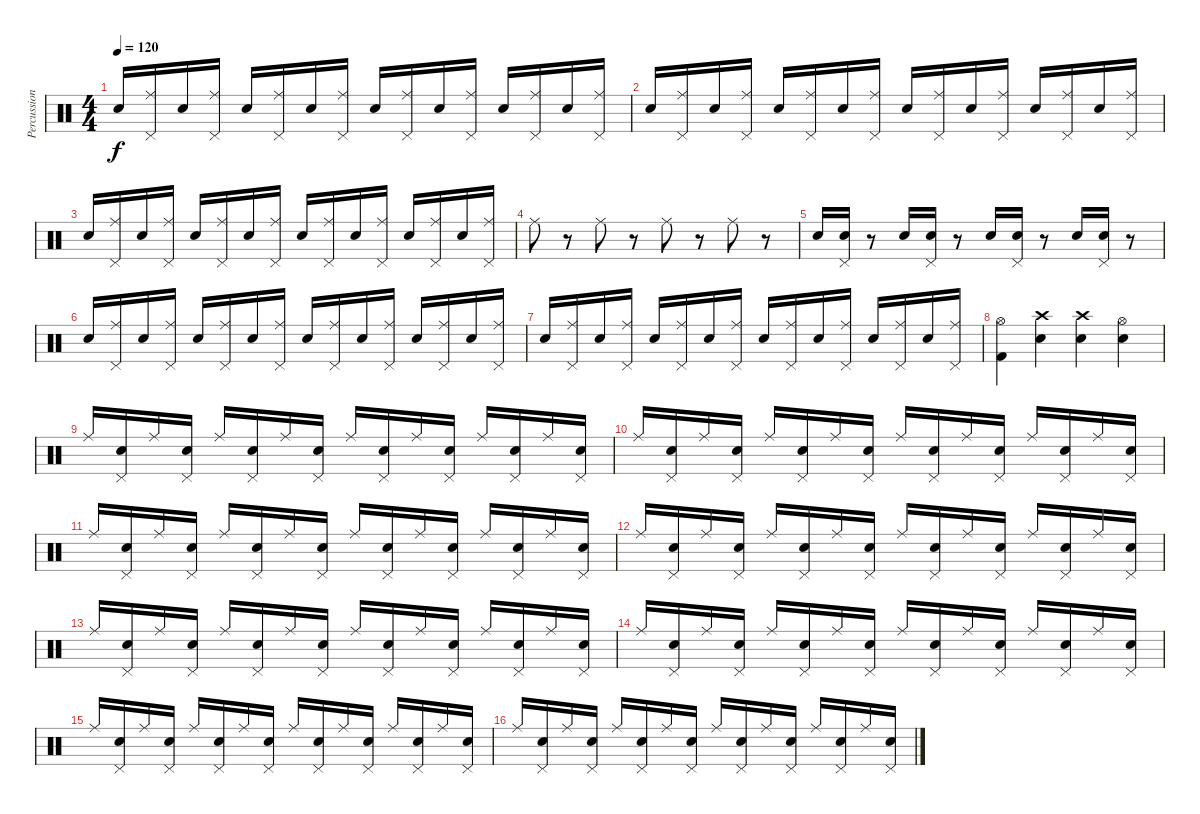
\track ("Percussions" "Percussion") {instrument percussion}
\staff {score}
\articulation defaults
\ts (4 4)
\tempo 120
\clef neutral
\ks c "Electric Snare (hit)".16{dy f}
("Pedal Hi-Hat (hit)" "Ride (middle)").16 "Electric Snare (hit)".16 ("Pedal Hi-Hat (hit)" "Ride (middle)").16 "Electric Snare (hit)".16 ("Pedal Hi-Hat (hit)" "Ride (middle)").16 "Electric Snare (hit)".16 ("Pedal Hi-Hat (hit)" "Ride (middle)").16 "Electric Snare (hit)".16 ("Pedal Hi-Hat (hit)" "Ride (middle)").16 "Electric Snare (hit)".16 ("Pedal Hi-Hat (hit)" "Ride (middle)").16 "Electric Snare (hit)".16 ("Pedal Hi-Hat (hit)" "Ride (middle)").16 "Electric Snare (hit)".16 ("Pedal Hi-Hat (hit)" "Ride (middle)").16 |
"Electric Snare (hit)".16 ("Pedal Hi-Hat (hit)" "Ride (middle)").16 "Electric Snare (hit)".16 ("Pedal Hi-Hat (hit)" "Ride (middle)").16 "Electric Snare (hit)".16 ("Pedal Hi-Hat (hit)" "Ride (middle)").16 "Electric Snare (hit)".16 ("Pedal Hi-Hat (hit)" "Ride (middle)").16 "Electric Snare (hit)".16 ("Pedal Hi-Hat (hit)" "Ride (middle)").16 "Electric Snare (hit)".16 ("Pedal Hi-Hat (hit)" "Ride (middle)").16 "Electric Snare (hit)".16 ("Pedal Hi-Hat (hit)" "Ride (middle)").16 "Electric Snare (hit)".16 ("Pedal Hi-Hat (hit)" "Ride (middle)").16 |
"Electric Snare (hit)".16 ("Pedal Hi-Hat (hit)" "Ride (middle)").16 "Electric Snare (hit)".16 ("Pedal Hi-Hat (hit)" "Ride (middle)").16 "Electric Snare (hit)".16 ("Pedal Hi-Hat (hit)" "Ride (middle)").16 "Electric Snare (hit)".16 ("Pedal Hi-Hat (hit)" "Ride (middle)").16 "Electric Snare (hit)".16 ("Pedal Hi-Hat (hit)" "Ride (middle)").16 "Electric Snare (hit)".16 ("Pedal Hi-Hat (hit)" "Ride (middle)").16 "Electric Snare (hit)".16 ("Pedal Hi-Hat (hit)" "Ride (middle)").16 "Electric Snare (hit)".16 ("Pedal Hi-Hat (hit)" "Ride (middle)").16 |
"Ride (middle)".8 r.8 "Ride (middle)".8 r.8 "Ride (middle)".8 r.8 "Ride (middle)".8 r.8 |
"Electric Snare (hit)".16 ("Pedal Hi-Hat (hit)" "Electric Snare (hit)").16 r.8 "Electric Snare (hit)".16 ("Pedal Hi-Hat (hit)" "Electric Snare (hit)").16 r.8 "Electric Snare (hit)".16 ("Pedal Hi-Hat (hit)" "Electric Snare (hit)").16 r.8 "Electric Snare (hit)".16 ("Pedal Hi-Hat (hit)" "Electric Snare (hit)").16 r.8 |
"Electric Snare (hit)".16 ("Pedal Hi-Hat (hit)" "Ride (middle)").16 "Electric Snare (hit)".16 ("Pedal Hi-Hat (hit)" "Ride (middle)").16 "Electric Snare (hit)".16 ("Pedal Hi-Hat (hit)" "Ride (middle)").16 "Electric Snare (hit)".16 ("Pedal Hi-Hat (hit)" "Ride (middle)").16 "Electric Snare (hit)".16 ("Pedal Hi-Hat (hit)" "Ride (middle)").16 "Electric Snare (hit)".16 ("Pedal Hi-Hat (hit)" "Ride (middle)").16 "Electric Snare (hit)".16 ("Pedal Hi-Hat (hit)" "Ride (middle)").16 "Electric Snare (hit)".16 ("Pedal Hi-Hat (hit)" "Ride (middle)").16 |
"Electric Snare (hit)".16 ("Pedal Hi-Hat (hit)" "Ride (middle)").16 "Electric Snare (hit)".16 ("Pedal Hi-Hat (hit)" "Ride (middle)").16 "Electric Snare (hit)".16 ("Pedal Hi-Hat (hit)" "Ride (middle)").16 "Electric Snare (hit)".16 ("Pedal Hi-Hat (hit)" "Ride (middle)").16 "Electric Snare (hit)".16 ("Pedal Hi-Hat (hit)" "Ride (middle)").16 "Electric Snare (hit)".16 ("Pedal Hi-Hat (hit)" "Ride (middle)").16 "Electric Snare (hit)".16 ("Pedal Hi-Hat (hit)" "Ride (middle)").16 "Electric Snare (hit)".16 ("Pedal Hi-Hat (hit)" "Ride (middle)").16 |
("Hi-Hat (open)" "Kick (hit) 2").4 ("Metronome (bell)" "Crash high (hit)").4 ("Crash high (hit)" "Metronome (bell)").4 ("Hi-Hat (open)" "Metronome (bell)").4 |
"Ride (middle)".16 ("Pedal Hi-Hat (hit)" "Electric Snare (hit)").16 "Ride (middle)".16 ("Pedal Hi-Hat (hit)" "Electric Snare (hit)").16 "Ride (middle)".16 ("Pedal Hi-Hat (hit)" "Electric Snare (hit)").16 "Ride (middle)".16 ("Pedal Hi-Hat (hit)" "Electric Snare (hit)").16 "Ride (middle)".16 ("Pedal Hi-Hat (hit)" "Electric Snare (hit)").16 "Ride (middle)".16 ("Pedal Hi-Hat (hit)" "Electric Snare (hit)").16 "Ride (middle)".16 ("Pedal Hi-Hat (hit)" "Electric Snare (hit)").16 "Ride (middle)".16 ("Pedal Hi-Hat (hit)" "Electric Snare (hit)").16 |
"Ride (middle)".16 ("Pedal Hi-Hat (hit)" "Electric Snare (hit)").16 "Ride (middle)".16 ("Pedal Hi-Hat (hit)" "Electric Snare (hit)").16 "Ride (middle)".16 ("Pedal Hi-Hat (hit)" "Electric Snare (hit)").16 "Ride (middle)".16 ("Pedal Hi-Hat (hit)" "Electric Snare (hit)").16 "Ride (middle)".16 ("Pedal Hi-Hat (hit)" "Electric Snare (hit)").16 "Ride (middle)".16 ("Pedal Hi-Hat (hit)" "Electric Snare (hit)").16 "Ride (middle)".16 ("Pedal Hi-Hat (hit)" "Electric Snare (hit)").16 "Ride (middle)".16 ("Pedal Hi-Hat (hit)" "Electric Snare (hit)").16 |
"Ride (middle)".16 ("Pedal Hi-Hat (hit)" "Electric Snare (hit)").16 "Ride (middle)".16 ("Pedal Hi-Hat (hit)" "Electric Snare (hit)").16 "Ride (middle)".16 ("Pedal Hi-Hat (hit)" "Electric Snare (hit)").16 "Ride (middle)".16 ("Pedal Hi-Hat (hit)" "Electric Snare (hit)").16 "Ride (middle)".16 ("Pedal Hi-Hat (hit)" "Electric Snare (hit)").16 "Ride (middle)".16 ("Pedal Hi-Hat (hit)" "Electric Snare (hit)").16 "Ride (middle)".16 ("Pedal Hi-Hat (hit)" "Electric Snare (hit)").16 "Ride (middle)".16 ("Pedal Hi-Hat (hit)" "Electric Snare (hit)").16 |
"Ride (middle)".16 ("Pedal Hi-Hat (hit)" "Electric Snare (hit)").16 "Ride (middle)".16 ("Pedal Hi-Hat (hit)" "Electric Snare (hit)").16 "Ride (middle)".16 ("Pedal Hi-Hat (hit)" "Electric Snare (hit)").16 "Ride (middle)".16 ("Pedal Hi-Hat (hit)" "Electric Snare (hit)").16 "Ride (middle)".16 ("Pedal Hi-Hat (hit)" "Electric Snare (hit)").16 "Ride (middle)".16 ("Pedal Hi-Hat (hit)" "Electric Snare (hit)").16 "Ride (middle)".16 ("Pedal Hi-Hat (hit)" "Electric Snare (hit)").16 "Ride (middle)".16 ("Pedal Hi-Hat (hit)" "Electric Snare (hit)").16 |
"Ride (middle)".16 ("Pedal Hi-Hat (hit)" "Electric Snare (hit)").16 "Ride (middle)".16 ("Pedal Hi-Hat (hit)" "Electric Snare (hit)").16 "Ride (middle)".16 ("Pedal Hi-Hat (hit)" "Electric Snare (hit)").16 "Ride (middle)".16 ("Pedal Hi-Hat (hit)" "Electric Snare (hit)").16 "Ride (middle)".16 ("Pedal Hi-Hat (hit)" "Electric Snare (hit)").16 "Ride (middle)".16 ("Pedal Hi-Hat (hit)" "Electric Snare (hit)").16 "Ride (middle)".16 ("Pedal Hi-Hat (hit)" "Electric Snare (hit)").16 "Ride (middle)".16 ("Pedal Hi-Hat (hit)" "Electric Snare (hit)").16 |
"Ride (middle)".16 ("Pedal Hi-Hat (hit)" "Electric Snare (hit)").16 "Ride (middle)".16 ("Pedal Hi-Hat (hit)" "Electric Snare (hit)").16 "Ride (middle)".16 ("Pedal Hi-Hat (hit)" "Electric Snare (hit)").16 "Ride (middle)".16 ("Pedal Hi-Hat (hit)" "Electric Snare (hit)").16 "Ride (middle)".16 ("Pedal Hi-Hat (hit)" "Electric Snare (hit)").16 "Ride (middle)".16 ("Pedal Hi-Hat (hit)" "Electric Snare (hit)").16 "Ride (middle)".16 ("Pedal Hi-Hat (hit)" "Electric Snare (hit)").16 "Ride (middle)".16 ("Pedal Hi-Hat (hit)" "Electric Snare (hit)").16 |
"Ride (middle)".16 ("Pedal Hi-Hat (hit)" "Electric Snare (hit)").16 "Ride (middle)".16 ("Pedal Hi-Hat (hit)" "Electric Snare (hit)").16 "Ride (middle)".16 ("Pedal Hi-Hat (hit)" "Electric Snare (hit)").16 "Ride (middle)".16 ("Pedal Hi-Hat (hit)" "Electric Snare (hit)").16 "Ride (middle)".16 ("Pedal Hi-Hat (hit)" "Electric Snare (hit)").16 "Ride (middle)".16 ("Pedal Hi-Hat (hit)" "Electric Snare (hit)").16 "Ride (middle)".16 ("Pedal Hi-Hat (hit)" "Electric Snare (hit)").16 "Ride (middle)".16 ("Pedal Hi-Hat (hit)" "Electric Snare (hit)").16 |
"Ride (middle)".16 ("Pedal Hi-Hat (hit)" "Electric Snare (hit)").16 "Ride (middle)".16 ("Pedal Hi-Hat (hit)" "Electric Snare (hit)").16 "Ride (middle)".16 ("Pedal Hi-Hat (hit)" "Electric Snare (hit)").16 "Ride (middle)".16 ("Pedal Hi-Hat (hit)" "Electric Snare (hit)").16 "Ride (middle)".16 ("Pedal Hi-Hat (hit)" "Electric Snare (hit)").16 "Ride (middle)".16 ("Pedal Hi-Hat (hit)" "Electric Snare (hit)").16 "Ride (middle)".16 ("Pedal Hi-Hat (hit)" "Electric Snare (hit)").16 "Ride (middle)".16 ("Pedal Hi-Hat (hit)" "Electric Snare (hit)").16
